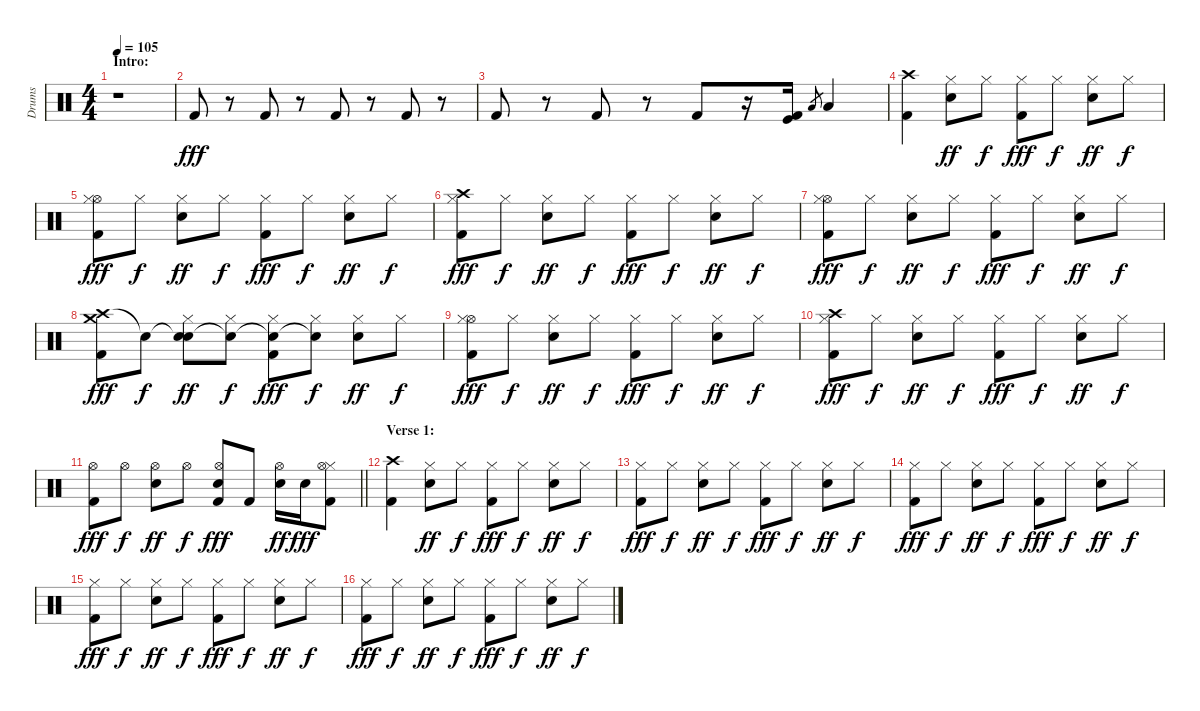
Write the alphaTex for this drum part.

\track ("Drums" "Drums") {instrument percussion}
\staff {score}
\articulation defaults
\ts (4 4)
\section ("" "Intro:")
\tempo 105
\clef neutral
\ks c
r.1{dy fff} |
"Kick (hit) 2".8{volume 16} r.8 "Kick (hit) 2".8 r.8 "Kick (hit) 2".8 r.8 "Kick (hit) 2".8 r.8 |
"Kick (hit) 2".8 r.8 "Kick (hit) 2".8 r.8 "Kick (hit) 2".8 r.16 ("Kick (hit)" "Kick (hit) 2").16 "Low Floor Tom (hit)".8{gr} "Low Floor Tom (hit)".4 |
("Crash high (hit)" "Kick (hit) 2").4 ("Hi-Hat (closed)" "Electric Snare (hit)").8{dy ff} "Hi-Hat (closed)".8{dy f} ("Hi-Hat (closed)" "Kick (hit) 2").8{dy fff} "Hi-Hat (closed)".8{dy f} ("Hi-Hat (closed)" "Electric Snare (hit)").8{dy ff} "Hi-Hat (closed)".8{dy f} |
("Hi-Hat (open)" "Hi-Hat (closed)" "Kick (hit) 2").8{dy fff} "Hi-Hat (closed)".8{dy f} ("Hi-Hat (closed)" "Electric Snare (hit)").8{dy ff} "Hi-Hat (closed)".8{dy f} ("Hi-Hat (closed)" "Kick (hit) 2").8{dy fff} "Hi-Hat (closed)".8{dy f} ("Hi-Hat (closed)" "Electric Snare (hit)").8{dy ff} "Hi-Hat (closed)".8{dy f} |
("Crash high (hit)" "Hi-Hat (closed)" "Kick (hit) 2").8{dy fff} "Hi-Hat (closed)".8{dy f} ("Hi-Hat (closed)" "Electric Snare (hit)").8{dy ff} "Hi-Hat (closed)".8{dy f} ("Hi-Hat (closed)" "Kick (hit) 2").8{dy fff} "Hi-Hat (closed)".8{dy f} ("Hi-Hat (closed)" "Electric Snare (hit)").8{dy ff} "Hi-Hat (closed)".8{dy f} |
("Hi-Hat (open)" "Hi-Hat (closed)" "Kick (hit) 2").8{dy fff} "Hi-Hat (closed)".8{dy f} ("Hi-Hat (closed)" "Electric Snare (hit)").8{dy ff} "Hi-Hat (closed)".8{dy f} ("Hi-Hat (closed)" "Kick (hit) 2").8{dy fff} "Hi-Hat (closed)".8{dy f} ("Hi-Hat (closed)" "Electric Snare (hit)").8{dy ff} "Hi-Hat (closed)".8{dy f} |
("Crash high (hit)" "Crash medium (hit)" "Kick (hit) 2").8{dy fff} "Snare (hit)"{t}.8{dy f} ("Snare (hit)"{t} "Hi-Hat (closed)" "Electric Snare (hit)").8{dy ff} ("Snare (hit)"{t} "Hi-Hat (closed)").8{dy f} ("Snare (hit)"{t} "Hi-Hat (closed)" "Kick (hit) 2").8{dy fff} ("Snare (hit)"{t} "Hi-Hat (closed)").8{dy f} ("Hi-Hat (closed)" "Electric Snare (hit)").8{dy ff} "Hi-Hat (closed)".8{dy f} |
("Hi-Hat (open)" "Hi-Hat (closed)" "Kick (hit) 2").8{dy fff} "Hi-Hat (closed)".8{dy f} ("Hi-Hat (closed)" "Electric Snare (hit)").8{dy ff} "Hi-Hat (closed)".8{dy f} ("Hi-Hat (closed)" "Kick (hit) 2").8{dy fff} "Hi-Hat (closed)".8{dy f} ("Hi-Hat (closed)" "Electric Snare (hit)").8{dy ff} "Hi-Hat (closed)".8{dy f} |
("Crash high (hit)" "Hi-Hat (closed)" "Kick (hit) 2").8{dy fff} "Hi-Hat (closed)".8{dy f} ("Hi-Hat (closed)" "Electric Snare (hit)").8{dy ff} "Hi-Hat (closed)".8{dy f} ("Hi-Hat (closed)" "Kick (hit) 2").8{dy fff} "Hi-Hat (closed)".8{dy f} ("Hi-Hat (closed)" "Electric Snare (hit)").8{dy ff} "Hi-Hat (closed)".8{dy f} |
\barLineRight lightlight
("Hi-Hat (open)" "Kick (hit) 2").8{dy fff} "Hi-Hat (open)".8{dy f} ("Hi-Hat (open)" "Snare (hit) 2").8{dy ff} "Hi-Hat (open)".8{dy f} ("Hi-Hat (open)" "Snare (hit) 2" "Kick (hit) 2").8{dy fff} "Kick (hit) 2".8 ("Snare (hit) 2" "Hi-Hat (open)").16{dy ff} "Snare (hit) 2".16{dy fff} ("Hi-Hat (closed)" "Hi-Hat (open)" "Kick (hit) 2").8 |
\section ("" "Verse 1:")
("Crash high (hit)" "Kick (hit) 2").4 ("Hi-Hat (closed)" "Electric Snare (hit)").8{dy ff} "Hi-Hat (closed)".8{dy f} ("Hi-Hat (closed)" "Kick (hit) 2").8{dy fff} "Hi-Hat (closed)".8{dy f} ("Hi-Hat (closed)" "Electric Snare (hit)").8{dy ff} "Hi-Hat (closed)".8{dy f} |
("Hi-Hat (closed)" "Kick (hit) 2").8{dy fff} "Hi-Hat (closed)".8{dy f} ("Hi-Hat (closed)" "Electric Snare (hit)").8{dy ff} "Hi-Hat (closed)".8{dy f} ("Hi-Hat (closed)" "Kick (hit) 2").8{dy fff} "Hi-Hat (closed)".8{dy f} ("Hi-Hat (closed)" "Electric Snare (hit)").8{dy ff} "Hi-Hat (closed)".8{dy f} |
("Hi-Hat (closed)" "Kick (hit) 2").8{dy fff} "Hi-Hat (closed)".8{dy f} ("Hi-Hat (closed)" "Electric Snare (hit)").8{dy ff} "Hi-Hat (closed)".8{dy f} ("Hi-Hat (closed)" "Kick (hit) 2").8{dy fff} "Hi-Hat (closed)".8{dy f} ("Hi-Hat (closed)" "Electric Snare (hit)").8{dy ff} "Hi-Hat (closed)".8{dy f} |
("Hi-Hat (closed)" "Kick (hit) 2").8{dy fff} "Hi-Hat (closed)".8{dy f} ("Hi-Hat (closed)" "Electric Snare (hit)").8{dy ff} "Hi-Hat (closed)".8{dy f} ("Hi-Hat (closed)" "Kick (hit) 2").8{dy fff} "Hi-Hat (closed)".8{dy f} ("Hi-Hat (closed)" "Electric Snare (hit)").8{dy ff} "Hi-Hat (closed)".8{dy f} |
("Hi-Hat (closed)" "Kick (hit) 2").8{dy fff} "Hi-Hat (closed)".8{dy f} ("Hi-Hat (closed)" "Electric Snare (hit)").8{dy ff} "Hi-Hat (closed)".8{dy f} ("Hi-Hat (closed)" "Kick (hit) 2").8{dy fff} "Hi-Hat (closed)".8{dy f} ("Hi-Hat (closed)" "Electric Snare (hit)").8{dy ff} "Hi-Hat (closed)".8{dy f}
